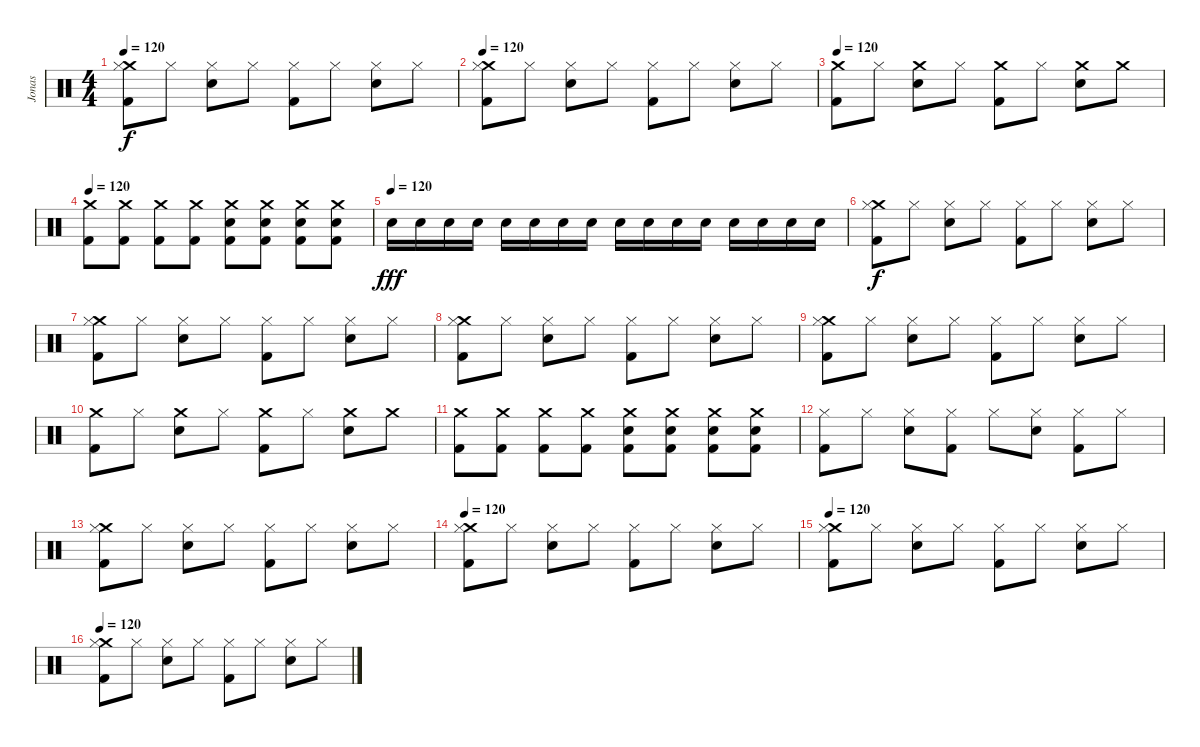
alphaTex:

\track ("Jonas" "Jonas") {instrument percussion}
\staff {score}
\articulation defaults
\ts (4 4)
\tempo 120
\clef neutral
\ks c
("Crash medium (hit)" "Hi-Hat (closed)" "Kick (hit) 2").8{dy f} "Hi-Hat (closed)".8 ("Hi-Hat (closed)" "Snare (hit) 2").8 "Hi-Hat (closed)".8 ("Hi-Hat (closed)" "Kick (hit) 2").8 "Hi-Hat (closed)".8 ("Hi-Hat (closed)" "Snare (hit) 2").8 "Hi-Hat (closed)".8 |
\tempo 120
("Crash medium (hit)" "Hi-Hat (closed)" "Kick (hit) 2").8 "Hi-Hat (closed)".8 ("Hi-Hat (closed)" "Snare (hit) 2").8 "Hi-Hat (closed)".8 ("Hi-Hat (closed)" "Kick (hit) 2").8 "Hi-Hat (closed)".8 ("Hi-Hat (closed)" "Snare (hit) 2").8 "Hi-Hat (closed)".8 |
\tempo 120
("Crash medium (hit)" "Kick (hit) 2").8 "Hi-Hat (closed)".8 ("Crash medium (hit)" "Snare (hit) 2").8 "Hi-Hat (closed)".8 ("Crash medium (hit)" "Kick (hit) 2").8 "Hi-Hat (closed)".8 ("Crash medium (hit)" "Snare (hit) 2").8 "Crash medium (hit)".8 |
\tempo 120
("Crash medium (hit)" "Kick (hit) 2").8 ("Crash medium (hit)" "Kick (hit) 2").8 ("Crash medium (hit)" "Kick (hit) 2").8 ("Crash medium (hit)" "Kick (hit) 2").8 ("Crash medium (hit)" "Snare (hit) 2" "Kick (hit) 2").8 ("Crash medium (hit)" "Snare (hit) 2" "Kick (hit) 2").8 ("Crash medium (hit)" "Snare (hit) 2" "Kick (hit) 2").8 ("Crash medium (hit)" "Snare (hit) 2" "Kick (hit) 2").8 |
\tempo (120)
"Snare (hit) 2".16{dy fff} "Snare (hit) 2".16 "Snare (hit) 2".16 "Snare (hit) 2".16 "Snare (hit) 2".16 "Snare (hit) 2".16 "Snare (hit) 2".16 "Snare (hit) 2".16 "Snare (hit) 2".16 "Snare (hit) 2".16 "Snare (hit) 2".16 "Snare (hit) 2".16 "Snare (hit) 2".16 "Snare (hit) 2".16 "Snare (hit) 2".16 "Snare (hit) 2".16 |
("Crash medium (hit)" "Hi-Hat (closed)" "Kick (hit) 2").8{dy f} "Hi-Hat (closed)".8 ("Hi-Hat (closed)" "Snare (hit) 2").8 "Hi-Hat (closed)".8 ("Hi-Hat (closed)" "Kick (hit) 2").8 "Hi-Hat (closed)".8 ("Hi-Hat (closed)" "Snare (hit) 2").8 "Hi-Hat (closed)".8 |
("Crash medium (hit)" "Hi-Hat (closed)" "Kick (hit) 2").8 "Hi-Hat (closed)".8 ("Hi-Hat (closed)" "Snare (hit) 2").8 "Hi-Hat (closed)".8 ("Hi-Hat (closed)" "Kick (hit) 2").8 "Hi-Hat (closed)".8 ("Hi-Hat (closed)" "Snare (hit) 2").8 "Hi-Hat (closed)".8 |
("Crash medium (hit)" "Hi-Hat (closed)" "Kick (hit) 2").8 "Hi-Hat (closed)".8 ("Hi-Hat (closed)" "Snare (hit) 2").8 "Hi-Hat (closed)".8 ("Hi-Hat (closed)" "Kick (hit) 2").8 "Hi-Hat (closed)".8 ("Hi-Hat (closed)" "Snare (hit) 2").8 "Hi-Hat (closed)".8 |
("Crash medium (hit)" "Hi-Hat (closed)" "Kick (hit) 2").8 "Hi-Hat (closed)".8 ("Hi-Hat (closed)" "Snare (hit) 2").8 "Hi-Hat (closed)".8 ("Hi-Hat (closed)" "Kick (hit) 2").8 "Hi-Hat (closed)".8 ("Hi-Hat (closed)" "Snare (hit) 2").8 "Hi-Hat (closed)".8 |
("Crash medium (hit)" "Kick (hit) 2").8 "Hi-Hat (closed)".8 ("Crash medium (hit)" "Snare (hit) 2").8 "Hi-Hat (closed)".8 ("Crash medium (hit)" "Kick (hit) 2").8 "Hi-Hat (closed)".8 ("Crash medium (hit)" "Snare (hit) 2").8 "Crash medium (hit)".8 |
("Crash medium (hit)" "Kick (hit) 2").8 ("Crash medium (hit)" "Kick (hit) 2").8 ("Crash medium (hit)" "Kick (hit) 2").8 ("Crash medium (hit)" "Kick (hit) 2").8 ("Crash medium (hit)" "Snare (hit) 2" "Kick (hit) 2").8 ("Crash medium (hit)" "Snare (hit) 2" "Kick (hit) 2").8 ("Crash medium (hit)" "Snare (hit) 2" "Kick (hit) 2").8 ("Crash medium (hit)" "Snare (hit) 2" "Kick (hit) 2").8 |
("Hi-Hat (closed)" "Kick (hit) 2").8 "Hi-Hat (closed)".8 ("Hi-Hat (closed)" "Snare (hit) 2").8 ("Hi-Hat (closed)" "Kick (hit) 2").8 "Hi-Hat (closed)".8 ("Hi-Hat (closed)" "Snare (hit) 2").8 ("Hi-Hat (closed)" "Kick (hit) 2").8 "Hi-Hat (closed)".8 |
("Crash medium (hit)" "Hi-Hat (closed)" "Kick (hit) 2").8 "Hi-Hat (closed)".8 ("Hi-Hat (closed)" "Snare (hit) 2").8 "Hi-Hat (closed)".8 ("Hi-Hat (closed)" "Kick (hit) 2").8 "Hi-Hat (closed)".8 ("Hi-Hat (closed)" "Snare (hit) 2").8 "Hi-Hat (closed)".8 |
\tempo 120
("Crash medium (hit)" "Hi-Hat (closed)" "Kick (hit) 2").8 "Hi-Hat (closed)".8 ("Hi-Hat (closed)" "Snare (hit) 2").8 "Hi-Hat (closed)".8 ("Hi-Hat (closed)" "Kick (hit) 2").8 "Hi-Hat (closed)".8 ("Hi-Hat (closed)" "Snare (hit) 2").8 "Hi-Hat (closed)".8 |
\tempo 120
("Crash medium (hit)" "Hi-Hat (closed)" "Kick (hit) 2").8 "Hi-Hat (closed)".8 ("Hi-Hat (closed)" "Snare (hit) 2").8 "Hi-Hat (closed)".8 ("Hi-Hat (closed)" "Kick (hit) 2").8 "Hi-Hat (closed)".8 ("Hi-Hat (closed)" "Snare (hit) 2").8 "Hi-Hat (closed)".8 |
\tempo 120
("Crash medium (hit)" "Hi-Hat (closed)" "Kick (hit) 2").8 "Hi-Hat (closed)".8 ("Hi-Hat (closed)" "Snare (hit) 2").8 "Hi-Hat (closed)".8 ("Hi-Hat (closed)" "Kick (hit) 2").8 "Hi-Hat (closed)".8 ("Hi-Hat (closed)" "Snare (hit) 2").8 "Hi-Hat (closed)".8
